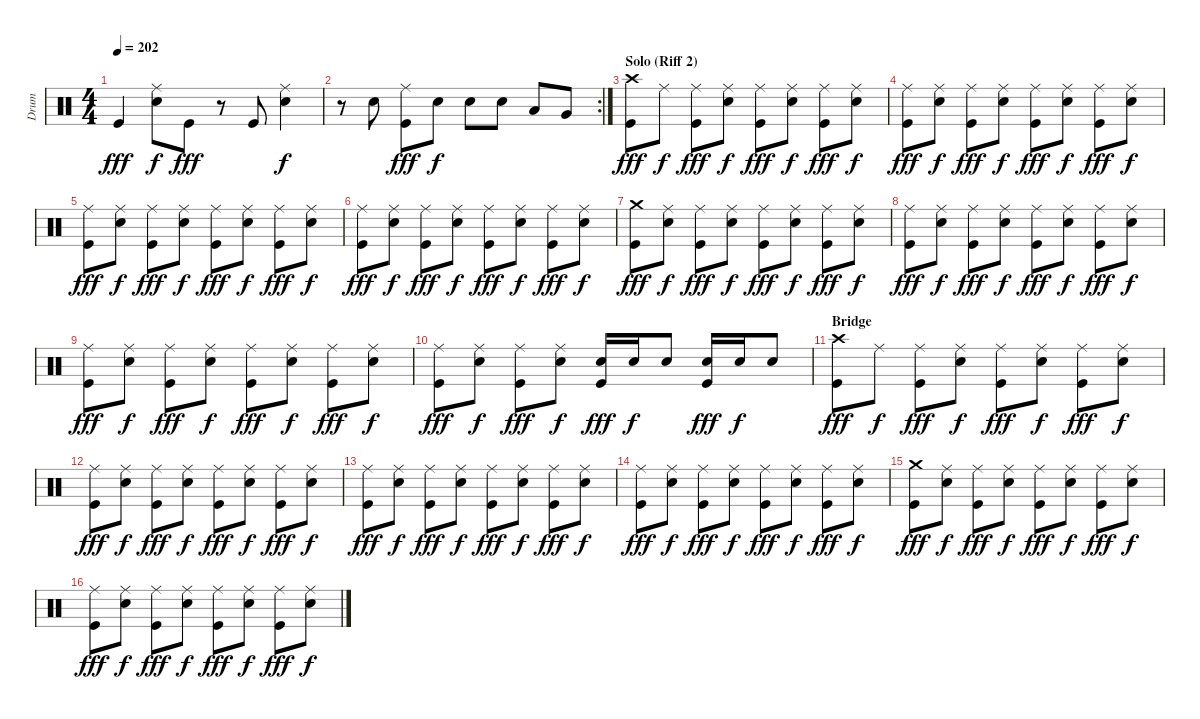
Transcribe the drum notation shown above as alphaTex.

\track ("Drum" "Drum") {instrument percussion}
\staff {score}
\articulation defaults
\ts (4 4)
\tempo 202
\clef neutral
\ks c "Kick (hit)".4{dy fff}
("Ride (middle)" "Electric Snare (hit)").8{dy f} "Kick (hit)".8{dy fff} r.8 "Kick (hit)".8 ("Ride (middle)" "Electric Snare (hit)").4{dy f} |
\rc 2
r.8 "Electric Snare (hit)".8 ("Ride (middle)" "Kick (hit)").8{dy fff} "Electric Snare (hit)".8{dy f} "Electric Snare (hit)".8 "Electric Snare (hit)".8 "Low Tom (hit)".8 "Very Low Tom (hit)".8 |
\section ("" "Solo (Riff 2)")
("Crash high (hit)" "Kick (hit)").8{dy fff} "Ride (middle)".8{dy f} ("Ride (middle)" "Kick (hit)").8{dy fff} ("Ride (middle)" "Electric Snare (hit)").8{dy f} ("Ride (middle)" "Kick (hit)").8{dy fff} ("Ride (middle)" "Electric Snare (hit)").8{dy f} ("Ride (middle)" "Kick (hit)").8{dy fff} ("Ride (middle)" "Electric Snare (hit)").8{dy f} |
("Ride (middle)" "Kick (hit)").8{dy fff} ("Ride (middle)" "Electric Snare (hit)").8{dy f} ("Ride (middle)" "Kick (hit)").8{dy fff} ("Ride (middle)" "Electric Snare (hit)").8{dy f} ("Ride (middle)" "Kick (hit)").8{dy fff} ("Ride (middle)" "Electric Snare (hit)").8{dy f} ("Ride (middle)" "Kick (hit)").8{dy fff} ("Ride (middle)" "Electric Snare (hit)").8{dy f} |
("Ride (middle)" "Kick (hit)").8{dy fff} ("Ride (middle)" "Electric Snare (hit)").8{dy f} ("Ride (middle)" "Kick (hit)").8{dy fff} ("Ride (middle)" "Electric Snare (hit)").8{dy f} ("Ride (middle)" "Kick (hit)").8{dy fff} ("Ride (middle)" "Electric Snare (hit)").8{dy f} ("Ride (middle)" "Kick (hit)").8{dy fff} ("Ride (middle)" "Electric Snare (hit)").8{dy f} |
("Ride (middle)" "Kick (hit)").8{dy fff} ("Ride (middle)" "Electric Snare (hit)").8{dy f} ("Ride (middle)" "Kick (hit)").8{dy fff} ("Ride (middle)" "Electric Snare (hit)").8{dy f} ("Ride (middle)" "Kick (hit)").8{dy fff} ("Ride (middle)" "Electric Snare (hit)").8{dy f} ("Ride (middle)" "Kick (hit)").8{dy fff} ("Ride (middle)" "Electric Snare (hit)").8{dy f} |
("Crash medium (hit)" "Kick (hit)").8{dy fff} ("Ride (middle)" "Electric Snare (hit)").8{dy f} ("Ride (middle)" "Kick (hit)").8{dy fff} ("Ride (middle)" "Electric Snare (hit)").8{dy f} ("Ride (middle)" "Kick (hit)").8{dy fff} ("Ride (middle)" "Electric Snare (hit)").8{dy f} ("Ride (middle)" "Kick (hit)").8{dy fff} ("Ride (middle)" "Electric Snare (hit)").8{dy f} |
("Ride (middle)" "Kick (hit)").8{dy fff} ("Ride (middle)" "Electric Snare (hit)").8{dy f} ("Ride (middle)" "Kick (hit)").8{dy fff} ("Ride (middle)" "Electric Snare (hit)").8{dy f} ("Ride (middle)" "Kick (hit)").8{dy fff} ("Ride (middle)" "Electric Snare (hit)").8{dy f} ("Ride (middle)" "Kick (hit)").8{dy fff} ("Ride (middle)" "Electric Snare (hit)").8{dy f} |
("Ride (middle)" "Kick (hit)").8{dy fff} ("Ride (middle)" "Electric Snare (hit)").8{dy f} ("Ride (middle)" "Kick (hit)").8{dy fff} ("Ride (middle)" "Electric Snare (hit)").8{dy f} ("Ride (middle)" "Kick (hit)").8{dy fff} ("Ride (middle)" "Electric Snare (hit)").8{dy f} ("Ride (middle)" "Kick (hit)").8{dy fff} ("Ride (middle)" "Electric Snare (hit)").8{dy f} |
("Ride (middle)" "Kick (hit)").8{dy fff} ("Ride (middle)" "Electric Snare (hit)").8{dy f} ("Ride (middle)" "Kick (hit)").8{dy fff} ("Ride (middle)" "Electric Snare (hit)").8{dy f} ("Electric Snare (hit)" "Kick (hit)").16{dy fff} "Electric Snare (hit)".16{dy f} "Electric Snare (hit)".8 ("Electric Snare (hit)" "Kick (hit)").16{dy fff} "Electric Snare (hit)".16{dy f} "Electric Snare (hit)".8 |
\section ("" "Bridge")
("Crash high (hit)" "Kick (hit)").8{dy fff} "Ride (middle)".8{dy f} ("Ride (middle)" "Kick (hit)").8{dy fff} ("Ride (middle)" "Electric Snare (hit)").8{dy f} ("Ride (middle)" "Kick (hit)").8{dy fff} ("Ride (middle)" "Electric Snare (hit)").8{dy f} ("Ride (middle)" "Kick (hit)").8{dy fff} ("Ride (middle)" "Electric Snare (hit)").8{dy f} |
("Ride (middle)" "Kick (hit)").8{dy fff} ("Ride (middle)" "Electric Snare (hit)").8{dy f} ("Ride (middle)" "Kick (hit)").8{dy fff} ("Ride (middle)" "Electric Snare (hit)").8{dy f} ("Ride (middle)" "Kick (hit)").8{dy fff} ("Ride (middle)" "Electric Snare (hit)").8{dy f} ("Ride (middle)" "Kick (hit)").8{dy fff} ("Ride (middle)" "Electric Snare (hit)").8{dy f} |
("Ride (middle)" "Kick (hit)").8{dy fff} ("Ride (middle)" "Electric Snare (hit)").8{dy f} ("Ride (middle)" "Kick (hit)").8{dy fff} ("Ride (middle)" "Electric Snare (hit)").8{dy f} ("Ride (middle)" "Kick (hit)").8{dy fff} ("Ride (middle)" "Electric Snare (hit)").8{dy f} ("Ride (middle)" "Kick (hit)").8{dy fff} ("Ride (middle)" "Electric Snare (hit)").8{dy f} |
("Ride (middle)" "Kick (hit)").8{dy fff} ("Ride (middle)" "Electric Snare (hit)").8{dy f} ("Ride (middle)" "Kick (hit)").8{dy fff} ("Ride (middle)" "Electric Snare (hit)").8{dy f} ("Ride (middle)" "Kick (hit)").8{dy fff} ("Ride (middle)" "Electric Snare (hit)").8{dy f} ("Ride (middle)" "Kick (hit)").8{dy fff} ("Ride (middle)" "Electric Snare (hit)").8{dy f} |
("Crash medium (hit)" "Kick (hit)").8{dy fff} ("Ride (middle)" "Electric Snare (hit)").8{dy f} ("Ride (middle)" "Kick (hit)").8{dy fff} ("Ride (middle)" "Electric Snare (hit)").8{dy f} ("Ride (middle)" "Kick (hit)").8{dy fff} ("Ride (middle)" "Electric Snare (hit)").8{dy f} ("Ride (middle)" "Kick (hit)").8{dy fff} ("Ride (middle)" "Electric Snare (hit)").8{dy f} |
("Ride (middle)" "Kick (hit)").8{dy fff} ("Ride (middle)" "Electric Snare (hit)").8{dy f} ("Ride (middle)" "Kick (hit)").8{dy fff} ("Ride (middle)" "Electric Snare (hit)").8{dy f} ("Ride (middle)" "Kick (hit)").8{dy fff} ("Ride (middle)" "Electric Snare (hit)").8{dy f} ("Ride (middle)" "Kick (hit)").8{dy fff} ("Ride (middle)" "Electric Snare (hit)").8{dy f}
